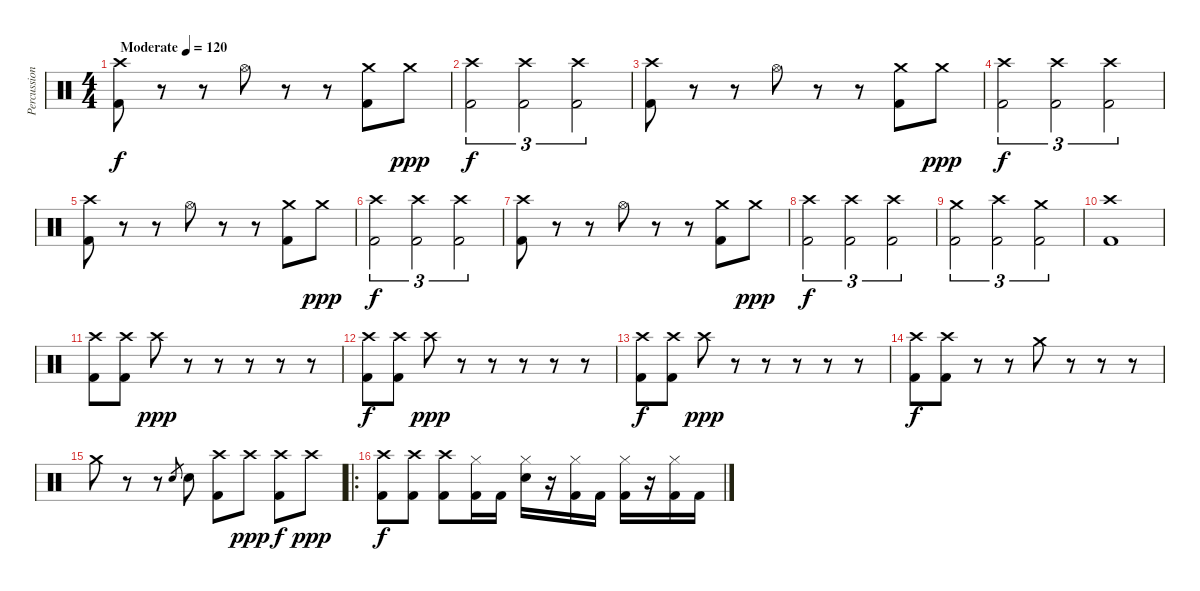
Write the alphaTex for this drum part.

\track ("Percussion" "Percussion") {instrument percussion}
\staff {score}
\articulation defaults
\ts (4 4)
\tempo (120 "Moderate")
\clef neutral
\ks c
("Crash high (hit)" "Kick (hit) 2").8{dy f} r.8 r.8 "Hi-Hat (open)".8 r.8 r.8 ("Crash medium (hit)" "Kick (hit) 2").8 "Crash medium (hit)".8{dy ppp} |
("Crash high (hit)" "Kick (hit) 2").2{tu (3 2) dy f} ("Crash high (hit)" "Kick (hit) 2").2{tu (3 2)} ("Crash high (hit)" "Kick (hit) 2").2{tu (3 2)} |
("Crash high (hit)" "Kick (hit) 2").8 r.8 r.8 "Hi-Hat (open)".8 r.8 r.8 ("Crash medium (hit)" "Kick (hit) 2").8 "Crash medium (hit)".8{dy ppp} |
("Crash high (hit)" "Kick (hit) 2").2{tu (3 2) dy f} ("Crash high (hit)" "Kick (hit) 2").2{tu (3 2)} ("Crash high (hit)" "Kick (hit) 2").2{tu (3 2)} |
("Crash high (hit)" "Kick (hit) 2").8 r.8 r.8 "Hi-Hat (open)".8 r.8 r.8 ("Crash medium (hit)" "Kick (hit) 2").8 "Crash medium (hit)".8{dy ppp} |
("Crash high (hit)" "Kick (hit) 2").2{tu (3 2) dy f} ("Crash high (hit)" "Kick (hit) 2").2{tu (3 2)} ("Crash high (hit)" "Kick (hit) 2").2{tu (3 2)} |
("Crash high (hit)" "Kick (hit) 2").8 r.8 r.8 "Hi-Hat (open)".8 r.8 r.8 ("Crash medium (hit)" "Kick (hit) 2").8 "Crash medium (hit)".8{dy ppp} |
("Crash high (hit)" "Kick (hit) 2").2{tu (3 2) dy f} ("Crash high (hit)" "Kick (hit) 2").2{tu (3 2)} ("Crash high (hit)" "Kick (hit) 2").2{tu (3 2)} |
("Crash medium (hit)" "Kick (hit) 2").2{tu (3 2)} ("Crash high (hit)" "Kick (hit) 2").2{tu (3 2)} ("Crash medium (hit)" "Kick (hit) 2").2{tu (3 2)} |
("Crash high (hit)" "Kick (hit) 2").1 |
("Crash high (hit)" "Kick (hit) 2").8 ("Crash high (hit)" "Kick (hit) 2").8 "Crash high (hit)".8{dy ppp} r.8 r.8 r.8 r.8 r.8 |
("Crash high (hit)" "Kick (hit) 2").8{dy f} ("Crash high (hit)" "Kick (hit) 2").8 "Crash high (hit)".8{dy ppp} r.8 r.8 r.8 r.8 r.8 |
("Crash high (hit)" "Kick (hit) 2").8{dy f} ("Crash high (hit)" "Kick (hit) 2").8 "Crash high (hit)".8{dy ppp} r.8 r.8 r.8 r.8 r.8 |
("Crash high (hit)" "Kick (hit) 2").8{dy f} ("Crash high (hit)" "Kick (hit) 2").8 r.8 r.8 "Crash medium (hit)".8 r.8 r.8 r.8 |
"Crash medium (hit)".8 r.8 r.8 "Snare (hit) 2".8{gr} "Snare (hit) 2".8 ("Crash high (hit)" "Kick (hit) 2").8 "Crash high (hit)".8{dy ppp} ("Crash high (hit)" "Kick (hit) 2").8{dy f} "Crash high (hit)".8{dy ppp} |
\ro
("Crash high (hit)" "Kick (hit) 2").8{dy f} ("Crash high (hit)" "Kick (hit) 2").8 ("Crash high (hit)" "Kick (hit) 2").8 ("Hi-Hat (closed)" "Kick (hit) 2").16 "Kick (hit) 2".16 ("Hi-Hat (closed)" "Snare (hit) 2").16 r.16 ("Hi-Hat (closed)" "Kick (hit) 2").16 "Kick (hit) 2".16 ("Hi-Hat (closed)" "Kick (hit) 2").16 r.16 ("Hi-Hat (closed)" "Kick (hit) 2").16 "Kick (hit) 2".16
